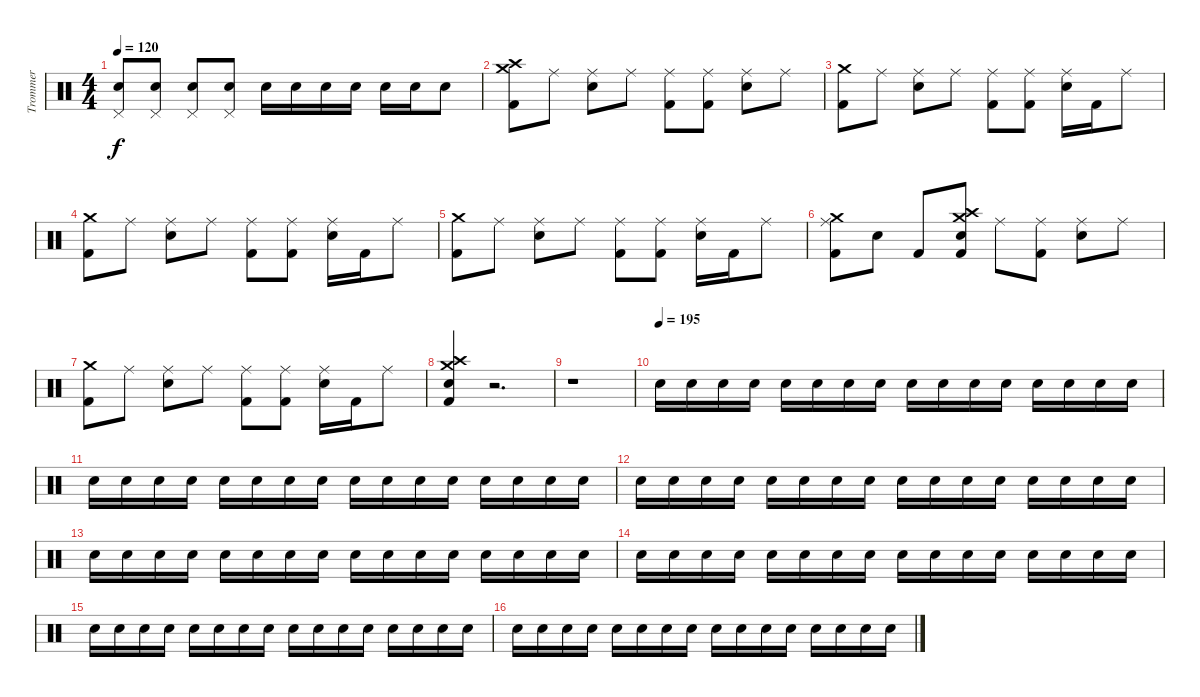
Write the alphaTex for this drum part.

\track ("Trommer" "Trommer") {instrument percussion}
\staff {score}
\articulation defaults
\ts (4 4)
\tempo 120
\clef neutral
\ks c
("Snare (hit) 2" "Pedal Hi-Hat (hit)").8{dy f} ("Snare (hit) 2" "Pedal Hi-Hat (hit)").8 ("Snare (hit) 2" "Pedal Hi-Hat (hit)").8 ("Snare (hit) 2" "Pedal Hi-Hat (hit)").8 "Snare (hit) 2".16 "Snare (hit) 2".16 "Snare (hit) 2".16 "Snare (hit) 2".16 "Snare (hit) 2".16 "Snare (hit) 2".16 "Snare (hit) 2".8 |
("Crash high (hit)" "Crash medium (hit)" "Kick (hit) 2").8 "Ride (middle)".8 ("Ride (middle)" "Snare (hit) 2").8 "Ride (middle)".8 ("Ride (middle)" "Kick (hit) 2").8 ("Ride (middle)" "Kick (hit) 2").8 ("Ride (middle)" "Snare (hit) 2").8 "Ride (middle)".8 |
("Kick (hit) 2" "Crash medium (hit)").8 "Ride (middle)".8 ("Ride (middle)" "Snare (hit) 2").8 "Ride (middle)".8 ("Ride (middle)" "Kick (hit) 2").8 ("Ride (middle)" "Kick (hit) 2").8 ("Ride (middle)" "Snare (hit) 2").16 "Kick (hit) 2".16 "Ride (middle)".8 |
("Kick (hit) 2" "Crash medium (hit)").8 "Ride (middle)".8 ("Ride (middle)" "Snare (hit) 2").8 "Ride (middle)".8 ("Ride (middle)" "Kick (hit) 2").8 ("Ride (middle)" "Kick (hit) 2").8 ("Ride (middle)" "Snare (hit) 2").16 "Kick (hit) 2".16 "Ride (middle)".8 |
("Crash medium (hit)" "Kick (hit) 2").8 "Ride (middle)".8 ("Ride (middle)" "Snare (hit) 2").8 "Ride (middle)".8 ("Ride (middle)" "Kick (hit) 2").8 ("Ride (middle)" "Kick (hit) 2").8 ("Ride (middle)" "Snare (hit) 2").16 "Kick (hit) 2".16 "Ride (middle)".8 |
("Crash medium (hit)" "Kick (hit) 2" "Ride (middle)").8 "Snare (hit) 2".8 "Kick (hit) 2".8 ("Crash medium (hit)" "Kick (hit) 2" "Snare (hit) 2" "Crash high (hit)").8 "Ride (middle)".8 ("Ride (middle)" "Kick (hit) 2").8 ("Ride (middle)" "Snare (hit) 2").8 "Ride (middle)".8 |
("Kick (hit) 2" "Crash medium (hit)").8 "Ride (middle)".8 ("Ride (middle)" "Snare (hit) 2").8 "Ride (middle)".8 ("Ride (middle)" "Kick (hit) 2").8 ("Ride (middle)" "Kick (hit) 2").8 ("Ride (middle)" "Snare (hit) 2").16 "Kick (hit) 2".16 "Ride (middle)".8 |
("Crash medium (hit)" "Crash high (hit)" "Snare (hit) 2" "Kick (hit) 2").4 r.2{d} |
r.1 |
\tempo (195)
"Snare (hit) 2".16 "Snare (hit) 2".16 "Snare (hit) 2".16 "Snare (hit) 2".16 "Snare (hit) 2".16 "Snare (hit) 2".16 "Snare (hit) 2".16 "Snare (hit) 2".16 "Snare (hit) 2".16 "Snare (hit) 2".16 "Snare (hit) 2".16 "Snare (hit) 2".16 "Snare (hit) 2".16 "Snare (hit) 2".16 "Snare (hit) 2".16 "Snare (hit) 2".16 |
"Snare (hit) 2".16 "Snare (hit) 2".16 "Snare (hit) 2".16 "Snare (hit) 2".16 "Snare (hit) 2".16 "Snare (hit) 2".16 "Snare (hit) 2".16 "Snare (hit) 2".16 "Snare (hit) 2".16 "Snare (hit) 2".16 "Snare (hit) 2".16 "Snare (hit) 2".16 "Snare (hit) 2".16 "Snare (hit) 2".16 "Snare (hit) 2".16 "Snare (hit) 2".16 |
"Snare (hit) 2".16 "Snare (hit) 2".16 "Snare (hit) 2".16 "Snare (hit) 2".16 "Snare (hit) 2".16 "Snare (hit) 2".16 "Snare (hit) 2".16 "Snare (hit) 2".16 "Snare (hit) 2".16 "Snare (hit) 2".16 "Snare (hit) 2".16 "Snare (hit) 2".16 "Snare (hit) 2".16 "Snare (hit) 2".16 "Snare (hit) 2".16 "Snare (hit) 2".16 |
"Snare (hit) 2".16 "Snare (hit) 2".16 "Snare (hit) 2".16 "Snare (hit) 2".16 "Snare (hit) 2".16 "Snare (hit) 2".16 "Snare (hit) 2".16 "Snare (hit) 2".16 "Snare (hit) 2".16 "Snare (hit) 2".16 "Snare (hit) 2".16 "Snare (hit) 2".16 "Snare (hit) 2".16 "Snare (hit) 2".16 "Snare (hit) 2".16 "Snare (hit) 2".16 |
"Snare (hit) 2".16 "Snare (hit) 2".16 "Snare (hit) 2".16 "Snare (hit) 2".16 "Snare (hit) 2".16 "Snare (hit) 2".16 "Snare (hit) 2".16 "Snare (hit) 2".16 "Snare (hit) 2".16 "Snare (hit) 2".16 "Snare (hit) 2".16 "Snare (hit) 2".16 "Snare (hit) 2".16 "Snare (hit) 2".16 "Snare (hit) 2".16 "Snare (hit) 2".16 |
"Snare (hit) 2".16 "Snare (hit) 2".16 "Snare (hit) 2".16 "Snare (hit) 2".16 "Snare (hit) 2".16 "Snare (hit) 2".16 "Snare (hit) 2".16 "Snare (hit) 2".16 "Snare (hit) 2".16 "Snare (hit) 2".16 "Snare (hit) 2".16 "Snare (hit) 2".16 "Snare (hit) 2".16 "Snare (hit) 2".16 "Snare (hit) 2".16 "Snare (hit) 2".16 |
"Snare (hit) 2".16 "Snare (hit) 2".16 "Snare (hit) 2".16 "Snare (hit) 2".16 "Snare (hit) 2".16 "Snare (hit) 2".16 "Snare (hit) 2".16 "Snare (hit) 2".16 "Snare (hit) 2".16 "Snare (hit) 2".16 "Snare (hit) 2".16 "Snare (hit) 2".16 "Snare (hit) 2".16 "Snare (hit) 2".16 "Snare (hit) 2".16 "Snare (hit) 2".16
